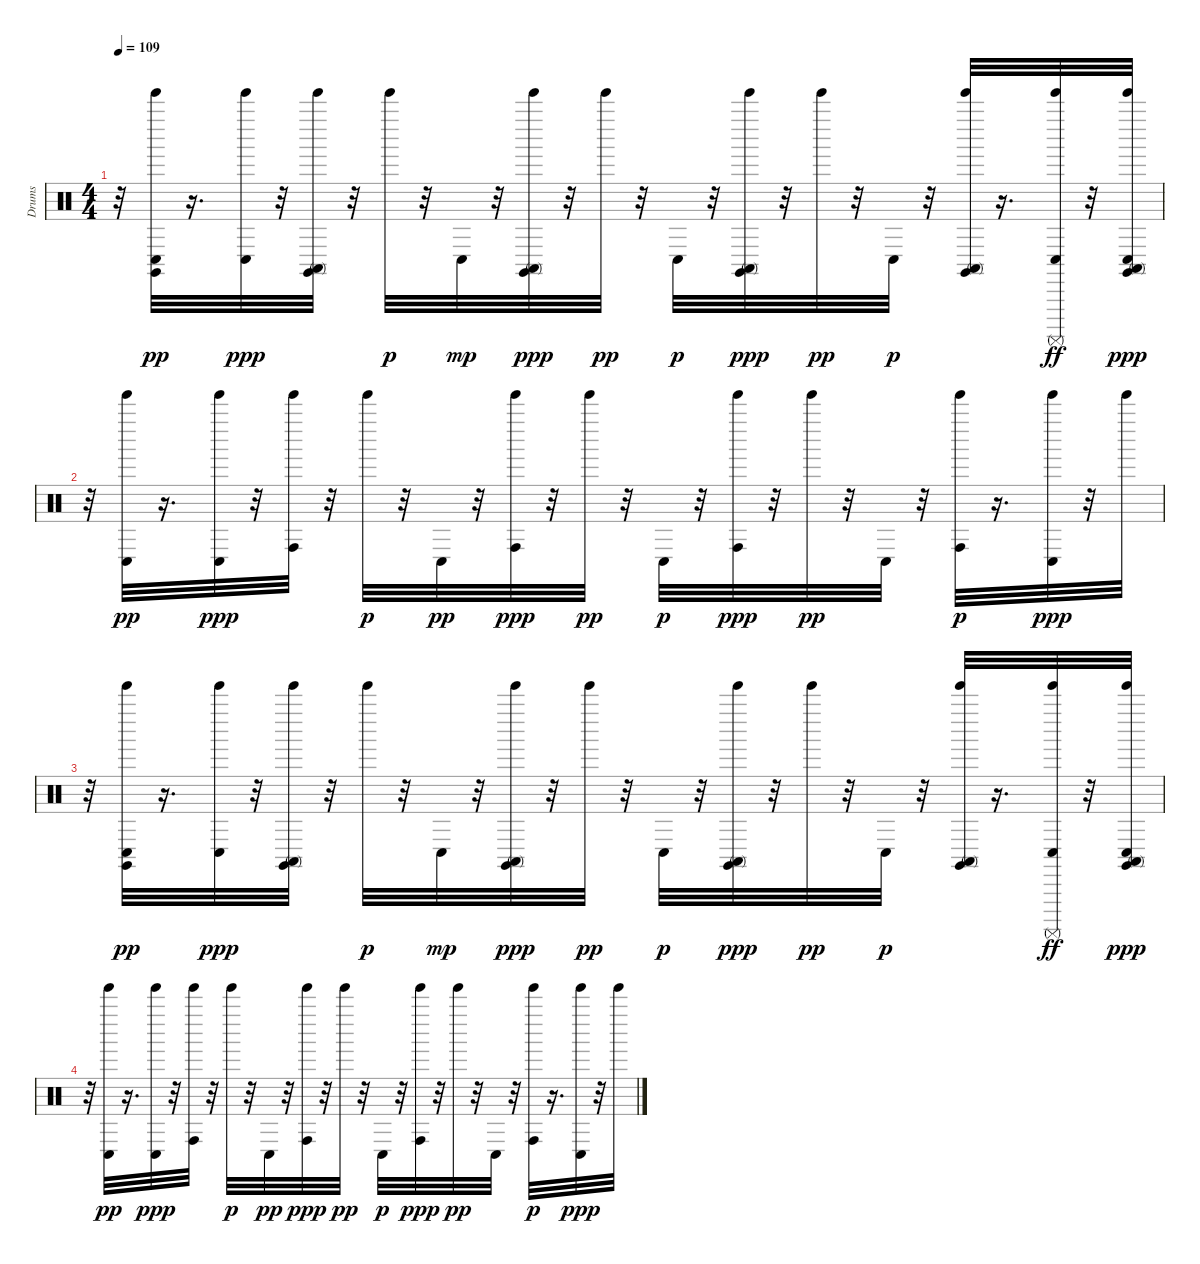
\track ("Drums" "Drums") {instrument percussion}
\staff {score}
\articulation defaults
\ts (4 4)
\tempo 109
\clef neutral
\ks c
r.32{dy ppp} ("Conga low (hit)" "Claves (hit)" "Tinkle Bell (hit)").32{dy pp} r.16{d} ("Conga low (hit)" "Tinkle Bell (hit)").32{dy ppp} r.32 ("Conga high (mute)" "Claves (hit)" "Tinkle Bell (hit)").32 r.32 "Tinkle Bell (hit)".32{dy p} r.32 "Conga low (hit)".32{dy mp} r.32 ("Conga high (mute)" "Claves (hit)" "Tinkle Bell (hit)").32{dy ppp} r.32 "Tinkle Bell (hit)".32{dy pp} r.32 "Conga low (hit)".32{dy p} r.32 ("Conga high (mute)" "Claves (hit)" "Tinkle Bell (hit)").32{dy ppp} r.32 "Tinkle Bell (hit)".32{dy pp} r.32 "Conga low (hit)".32{dy p} r.32 ("Conga high (mute)" "Claves (hit)" "Tinkle Bell (hit)").32 r.16{d} ("Conga low (hit)" "Tinkle Bell (hit)" "Surdo (mute)").32{dy ff} r.32 ("Conga high (mute)" "Conga low (hit)" "Claves (hit)" "Tinkle Bell (hit)").32{dy ppp} |
r.32 ("Conga low (hit)" "Tinkle Bell (hit)").32{dy pp} r.16{d} ("Conga low (hit)" "Tinkle Bell (hit)").32{dy ppp} r.32 ("Conga high (hit)" "Tinkle Bell (hit)").32 r.32 "Tinkle Bell (hit)".32{dy p} r.32 "Conga low (hit)".32{dy pp} r.32 ("Conga high (hit)" "Tinkle Bell (hit)").32{dy ppp} r.32 "Tinkle Bell (hit)".32{dy pp} r.32 "Conga low (hit)".32{dy p} r.32 ("Conga high (hit)" "Tinkle Bell (hit)").32{dy ppp} r.32 "Tinkle Bell (hit)".32{dy pp} r.32 "Conga low (hit)".32 r.32 ("Conga high (hit)" "Tinkle Bell (hit)").32{dy p} r.16{d} ("Conga low (hit)" "Tinkle Bell (hit)").32{dy ppp} r.32 "Tinkle Bell (hit)".32 |
r.32 ("Conga low (hit)" "Claves (hit)" "Tinkle Bell (hit)").32{dy pp} r.16{d} ("Conga low (hit)" "Tinkle Bell (hit)").32{dy ppp} r.32 ("Conga high (mute)" "Claves (hit)" "Tinkle Bell (hit)").32 r.32 "Tinkle Bell (hit)".32{dy p} r.32 "Conga low (hit)".32{dy mp} r.32 ("Conga high (mute)" "Claves (hit)" "Tinkle Bell (hit)").32{dy ppp} r.32 "Tinkle Bell (hit)".32{dy pp} r.32 "Conga low (hit)".32{dy p} r.32 ("Conga high (mute)" "Claves (hit)" "Tinkle Bell (hit)").32{dy ppp} r.32 "Tinkle Bell (hit)".32{dy pp} r.32 "Conga low (hit)".32{dy p} r.32 ("Conga high (mute)" "Claves (hit)" "Tinkle Bell (hit)").32 r.16{d} ("Conga low (hit)" "Tinkle Bell (hit)" "Surdo (mute)").32{dy ff} r.32 ("Conga high (mute)" "Conga low (hit)" "Claves (hit)" "Tinkle Bell (hit)").32{dy ppp} |
r.32 ("Conga low (hit)" "Tinkle Bell (hit)").32{dy pp} r.16{d} ("Conga low (hit)" "Tinkle Bell (hit)").32{dy ppp} r.32 ("Conga high (hit)" "Tinkle Bell (hit)").32 r.32 "Tinkle Bell (hit)".32{dy p} r.32 "Conga low (hit)".32{dy pp} r.32 ("Conga high (hit)" "Tinkle Bell (hit)").32{dy ppp} r.32 "Tinkle Bell (hit)".32{dy pp} r.32 "Conga low (hit)".32{dy p} r.32 ("Conga high (hit)" "Tinkle Bell (hit)").32{dy ppp} r.32 "Tinkle Bell (hit)".32{dy pp} r.32 "Conga low (hit)".32 r.32 ("Conga high (hit)" "Tinkle Bell (hit)").32{dy p} r.16{d} ("Conga low (hit)" "Tinkle Bell (hit)").32{dy ppp} r.32 "Tinkle Bell (hit)".32
